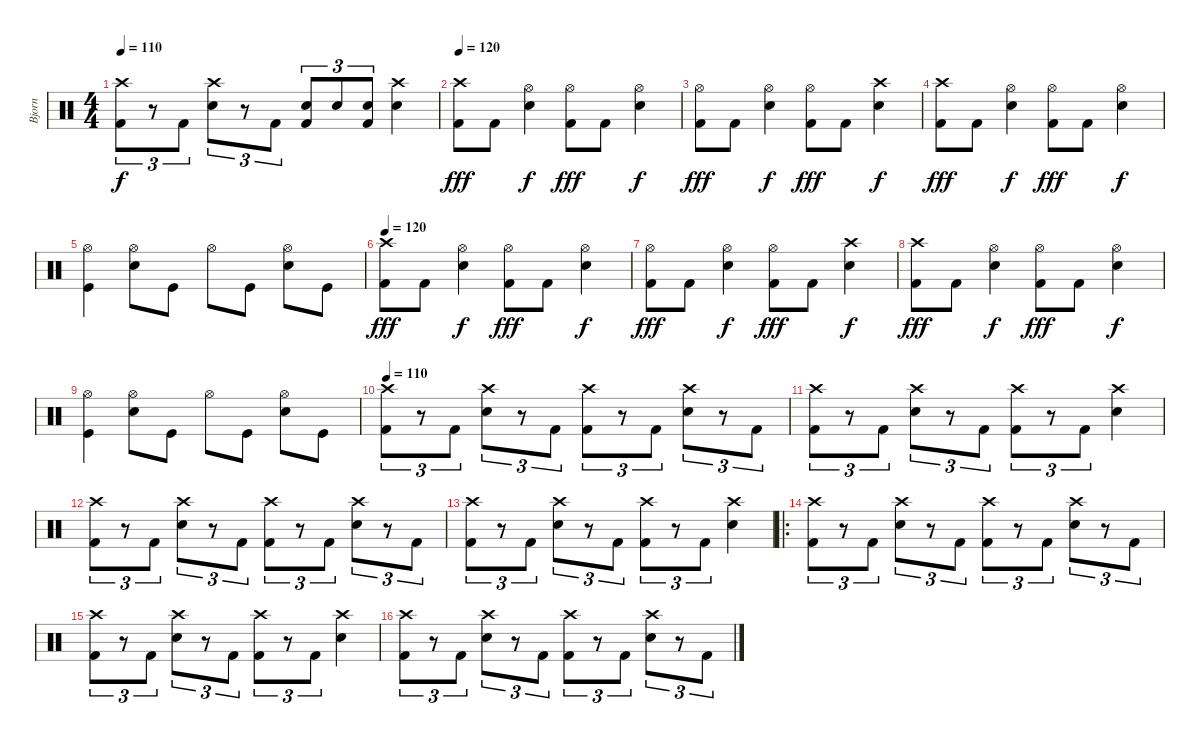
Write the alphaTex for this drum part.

\track ("Bjorn " "Bjorn ") {instrument percussion}
\staff {score}
\articulation defaults
\ts (4 4)
\tempo 110
\clef neutral
\ks c
("Crash high (hit)" "Kick (hit) 2").8{tu (3 2) dy f} r.8{tu (3 2)} "Kick (hit) 2".8{tu (3 2)} ("Crash high (hit)" "Electric Snare (hit)").8{tu (3 2)} r.8{tu (3 2)} "Kick (hit) 2".8{tu (3 2)} ("Electric Snare (hit)" "Kick (hit) 2").8{tu (3 2)} "Electric Snare (hit)".8{tu (3 2)} ("Electric Snare (hit)" "Kick (hit) 2").8{tu (3 2)} ("Crash high (hit)" "Electric Snare (hit)").4 |
\tempo 120
("Crash high (hit)" "Kick (hit) 2").8{dy fff} "Kick (hit) 2".8 ("Hi-Hat (open)" "Electric Snare (hit)").4{dy f} ("Hi-Hat (open)" "Kick (hit) 2").8{dy fff} "Kick (hit) 2".8 ("Hi-Hat (open)" "Electric Snare (hit)").4{dy f} |
("Hi-Hat (open)" "Kick (hit) 2").8{dy fff} "Kick (hit) 2".8 ("Hi-Hat (open)" "Electric Snare (hit)").4{dy f} ("Hi-Hat (open)" "Kick (hit) 2").8{dy fff} "Kick (hit) 2".8 ("Crash high (hit)" "Electric Snare (hit)").4{dy f} |
("Crash high (hit)" "Kick (hit) 2").8{dy fff} "Kick (hit) 2".8 ("Hi-Hat (open)" "Electric Snare (hit)").4{dy f} ("Hi-Hat (open)" "Kick (hit) 2").8{dy fff} "Kick (hit) 2".8 ("Hi-Hat (open)" "Electric Snare (hit)").4{dy f} |
("Hi-Hat (open)" "Kick (hit)").4 ("Hi-Hat (open)" "Electric Snare (hit)").8 "Kick (hit)".8 "Hi-Hat (open)".8 "Kick (hit)".8 ("Hi-Hat (open)" "Electric Snare (hit)").8 "Kick (hit)".8 |
\tempo 120
("Crash high (hit)" "Kick (hit) 2").8{dy fff} "Kick (hit) 2".8 ("Hi-Hat (open)" "Electric Snare (hit)").4{dy f} ("Hi-Hat (open)" "Kick (hit) 2").8{dy fff} "Kick (hit) 2".8 ("Hi-Hat (open)" "Electric Snare (hit)").4{dy f} |
("Hi-Hat (open)" "Kick (hit) 2").8{dy fff} "Kick (hit) 2".8 ("Hi-Hat (open)" "Electric Snare (hit)").4{dy f} ("Hi-Hat (open)" "Kick (hit) 2").8{dy fff} "Kick (hit) 2".8 ("Crash high (hit)" "Electric Snare (hit)").4{dy f} |
("Crash high (hit)" "Kick (hit) 2").8{dy fff} "Kick (hit) 2".8 ("Hi-Hat (open)" "Electric Snare (hit)").4{dy f} ("Hi-Hat (open)" "Kick (hit) 2").8{dy fff} "Kick (hit) 2".8 ("Hi-Hat (open)" "Electric Snare (hit)").4{dy f} |
("Hi-Hat (open)" "Kick (hit)").4 ("Hi-Hat (open)" "Electric Snare (hit)").8 "Kick (hit)".8 "Hi-Hat (open)".8 "Kick (hit)".8 ("Hi-Hat (open)" "Electric Snare (hit)").8 "Kick (hit)".8 |
\tempo 110
("Crash high (hit)" "Kick (hit) 2").8{tu (3 2)} r.8{tu (3 2)} "Kick (hit) 2".8{tu (3 2)} ("Crash high (hit)" "Electric Snare (hit)").8{tu (3 2)} r.8{tu (3 2)} "Kick (hit) 2".8{tu (3 2)} ("Crash high (hit)" "Kick (hit) 2").8{tu (3 2)} r.8{tu (3 2)} "Kick (hit) 2".8{tu (3 2)} ("Crash high (hit)" "Electric Snare (hit)").8{tu (3 2)} r.8{tu (3 2)} "Kick (hit) 2".8{tu (3 2)} |
("Crash high (hit)" "Kick (hit) 2").8{tu (3 2)} r.8{tu (3 2)} "Kick (hit) 2".8{tu (3 2)} ("Crash high (hit)" "Electric Snare (hit)").8{tu (3 2)} r.8{tu (3 2)} "Kick (hit) 2".8{tu (3 2)} ("Crash high (hit)" "Kick (hit) 2").8{tu (3 2)} r.8{tu (3 2)} "Kick (hit) 2".8{tu (3 2)} ("Crash high (hit)" "Electric Snare (hit)").4 |
("Crash high (hit)" "Kick (hit) 2").8{tu (3 2)} r.8{tu (3 2)} "Kick (hit) 2".8{tu (3 2)} ("Crash high (hit)" "Electric Snare (hit)").8{tu (3 2)} r.8{tu (3 2)} "Kick (hit) 2".8{tu (3 2)} ("Crash high (hit)" "Kick (hit) 2").8{tu (3 2)} r.8{tu (3 2)} "Kick (hit) 2".8{tu (3 2)} ("Crash high (hit)" "Electric Snare (hit)").8{tu (3 2)} r.8{tu (3 2)} "Kick (hit) 2".8{tu (3 2)} |
("Crash high (hit)" "Kick (hit) 2").8{tu (3 2)} r.8{tu (3 2)} "Kick (hit) 2".8{tu (3 2)} ("Crash high (hit)" "Electric Snare (hit)").8{tu (3 2)} r.8{tu (3 2)} "Kick (hit) 2".8{tu (3 2)} ("Crash high (hit)" "Kick (hit) 2").8{tu (3 2)} r.8{tu (3 2)} "Kick (hit) 2".8{tu (3 2)} ("Crash high (hit)" "Electric Snare (hit)").4 |
\ro
("Crash high (hit)" "Kick (hit) 2").8{tu (3 2)} r.8{tu (3 2)} "Kick (hit) 2".8{tu (3 2)} ("Crash high (hit)" "Electric Snare (hit)").8{tu (3 2)} r.8{tu (3 2)} "Kick (hit) 2".8{tu (3 2)} ("Crash high (hit)" "Kick (hit) 2").8{tu (3 2)} r.8{tu (3 2)} "Kick (hit) 2".8{tu (3 2)} ("Crash high (hit)" "Electric Snare (hit)").8{tu (3 2)} r.8{tu (3 2)} "Kick (hit) 2".8{tu (3 2)} |
("Crash high (hit)" "Kick (hit) 2").8{tu (3 2)} r.8{tu (3 2)} "Kick (hit) 2".8{tu (3 2)} ("Crash high (hit)" "Electric Snare (hit)").8{tu (3 2)} r.8{tu (3 2)} "Kick (hit) 2".8{tu (3 2)} ("Crash high (hit)" "Kick (hit) 2").8{tu (3 2)} r.8{tu (3 2)} "Kick (hit) 2".8{tu (3 2)} ("Crash high (hit)" "Electric Snare (hit)").4 |
("Crash high (hit)" "Kick (hit) 2").8{tu (3 2)} r.8{tu (3 2)} "Kick (hit) 2".8{tu (3 2)} ("Crash high (hit)" "Electric Snare (hit)").8{tu (3 2)} r.8{tu (3 2)} "Kick (hit) 2".8{tu (3 2)} ("Crash high (hit)" "Kick (hit) 2").8{tu (3 2)} r.8{tu (3 2)} "Kick (hit) 2".8{tu (3 2)} ("Crash high (hit)" "Electric Snare (hit)").8{tu (3 2)} r.8{tu (3 2)} "Kick (hit) 2".8{tu (3 2)}
